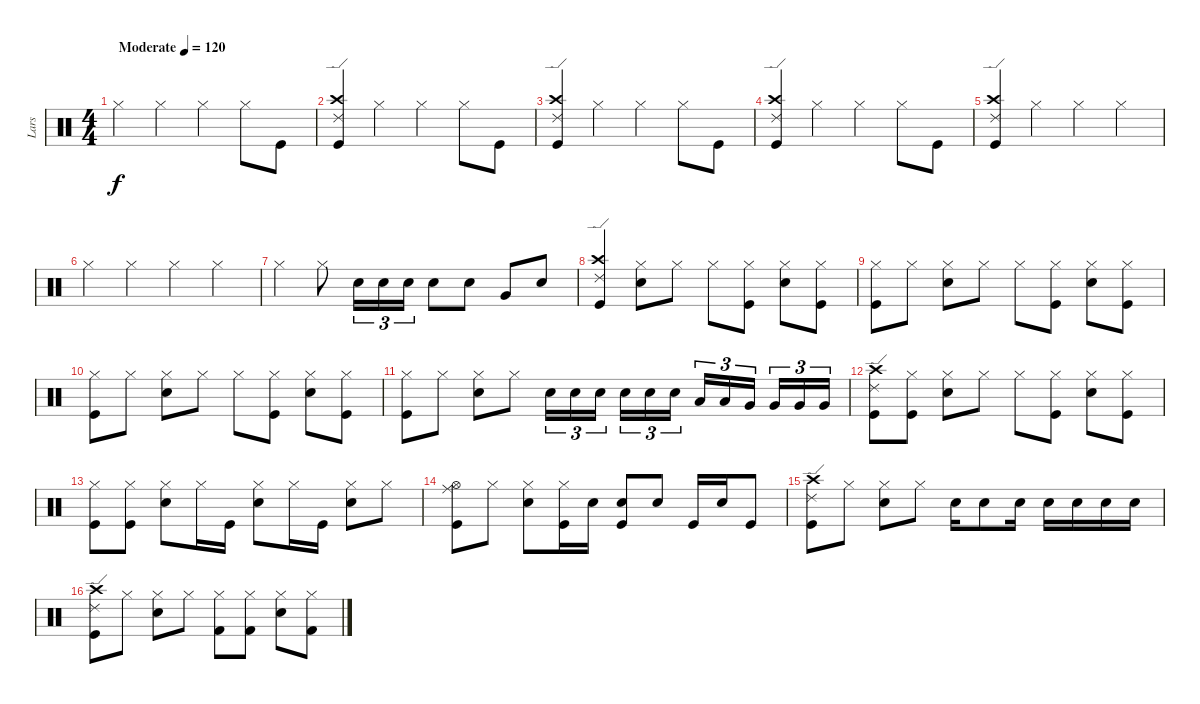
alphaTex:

\track ("Lars" "Lars") {instrument percussion}
\staff
\articulation defaults
\ts (4 4)
\tempo (120 "Moderate")
\tempo 65
\tempo (120 "Moderate")
\clef neutral
\ks c "Hi-Hat (closed)".4{dy f} "Hi-Hat (closed)".4 "Hi-Hat (closed)".4 "Hi-Hat (closed)".8 "Kick (hit)".8
|
("Crash high (hit)" "Ride (edge) 2" "Kick (hit)").4 "Hi-Hat (closed)".4 "Hi-Hat (closed)".4 "Hi-Hat (closed)".8 "Kick (hit)".8 |
("Crash high (hit)" "Ride (edge) 2" "Kick (hit)").4 "Hi-Hat (closed)".4 "Hi-Hat (closed)".4 "Hi-Hat (closed)".8 "Kick (hit)".8 |
("Crash high (hit)" "Ride (edge) 2" "Kick (hit)").4 "Hi-Hat (closed)".4 "Hi-Hat (closed)".4 "Hi-Hat (closed)".8 "Kick (hit)".8 |
("Crash high (hit)" "Ride (edge) 2" "Kick (hit)").4 "Hi-Hat (closed)".4 "Hi-Hat (closed)".4 "Hi-Hat (closed)".4 |
"Hi-Hat (closed)".4 "Hi-Hat (closed)".4 "Hi-Hat (closed)".4 "Hi-Hat (closed)".4 |
"Hi-Hat (closed)".4 "Hi-Hat (closed)".8 "Snare (hit) 2".16{tu (3 2)} "Snare (hit) 2".16{tu (3 2)} "Snare (hit) 2".16{tu (3 2)} "Snare (hit) 2".8 "Snare (hit) 2".8 "Very Low Tom (hit)".8 "Snare (hit) 2".8 |
("Crash high (hit)" "Ride (edge) 2" "Kick (hit)").4 ("Snare (hit) 2" "Hi-Hat (closed)").8 "Hi-Hat (closed)".8 "Hi-Hat (closed)".8 ("Kick (hit)" "Hi-Hat (closed)").8 ("Snare (hit) 2" "Hi-Hat (closed)").8 ("Kick (hit)" "Hi-Hat (closed)").8 |
("Kick (hit)" "Hi-Hat (closed)").8 "Hi-Hat (closed)".8 ("Snare (hit) 2" "Hi-Hat (closed)").8 "Hi-Hat (closed)".8 "Hi-Hat (closed)".8 ("Kick (hit)" "Hi-Hat (closed)").8 ("Snare (hit) 2" "Hi-Hat (closed)").8 ("Kick (hit)" "Hi-Hat (closed)").8 |
("Kick (hit)" "Hi-Hat (closed)").8 "Hi-Hat (closed)".8 ("Snare (hit) 2" "Hi-Hat (closed)").8 "Hi-Hat (closed)".8 "Hi-Hat (closed)".8 ("Kick (hit)" "Hi-Hat (closed)").8 ("Snare (hit) 2" "Hi-Hat (closed)").8 ("Kick (hit)" "Hi-Hat (closed)").8 |
("Kick (hit)" "Hi-Hat (closed)").8 "Hi-Hat (closed)".8 ("Snare (hit) 2" "Hi-Hat (closed)").8 "Hi-Hat (closed)".8 "Snare (hit) 2".16{tu (3 2)} "Snare (hit) 2".16{tu (3 2)} "Snare (hit) 2".16{tu (3 2) beam splitsecondary} "Snare (hit) 2".16{tu (3 2)} "Snare (hit) 2".16{tu (3 2)} "Snare (hit) 2".16{tu (3 2)} "Low Tom (hit)".16{tu (3 2)} "Low Tom (hit)".16{tu (3 2)} "Very Low Tom (hit)".16{tu (3 2) beam splitsecondary} "Very Low Tom (hit)".16{tu (3 2)} "Very Low Tom (hit)".16{tu (3 2)} "Very Low Tom (hit)".16{tu (3 2)} |
("Crash high (hit)" "Ride (edge) 2" "Kick (hit)").8 ("Kick (hit)" "Hi-Hat (closed)").8 ("Snare (hit) 2" "Hi-Hat (closed)").8 "Hi-Hat (closed)".8 "Hi-Hat (closed)".8 ("Kick (hit)" "Hi-Hat (closed)").8 ("Snare (hit) 2" "Hi-Hat (closed)").8 ("Kick (hit)" "Hi-Hat (closed)").8 |
("Kick (hit)" "Hi-Hat (closed)").8 ("Kick (hit)" "Hi-Hat (closed)").8 ("Snare (hit) 2" "Hi-Hat (closed)").8 "Hi-Hat (closed)".16 "Kick (hit)".16 ("Snare (hit) 2" "Hi-Hat (closed)").8 "Hi-Hat (closed)".16 "Kick (hit)".16 ("Snare (hit) 2" "Hi-Hat (closed)").8 "Hi-Hat (closed)".8 |
("Hi-Hat (open)" "Ride (middle)" "Kick (hit)").8 "Hi-Hat (closed)".8 ("Snare (hit) 2" "Hi-Hat (closed)").8 ("Kick (hit)" "Hi-Hat (closed)").16 "Snare (hit) 2".16 ("Kick (hit)" "Snare (hit) 2").8 "Snare (hit) 2".8 "Kick (hit)".16 "Snare (hit) 2".16 "Kick (hit)".8 |
("Crash high (hit)" "Ride (edge) 2" "Kick (hit)").8 "Hi-Hat (closed)".8 ("Snare (hit) 2" "Hi-Hat (closed)").8 "Hi-Hat (closed)".8 "Snare (hit) 2".16 "Snare (hit) 2".8 "Snare (hit) 2".16 "Snare (hit) 2".16 "Snare (hit) 2".16 "Snare (hit) 2".16 "Snare (hit) 2".16 |
("Crash high (hit)" "Ride (edge) 2" "Kick (hit)").8 "Hi-Hat (closed)".8 ("Snare (hit) 2" "Hi-Hat (closed)").8 "Hi-Hat (closed)".8 ("Kick (hit) 2" "Hi-Hat (closed)").8 ("Kick (hit) 2" "Hi-Hat (closed)").8 ("Snare (hit) 2" "Hi-Hat (closed)").8 ("Kick (hit) 2" "Hi-Hat (closed)").8
